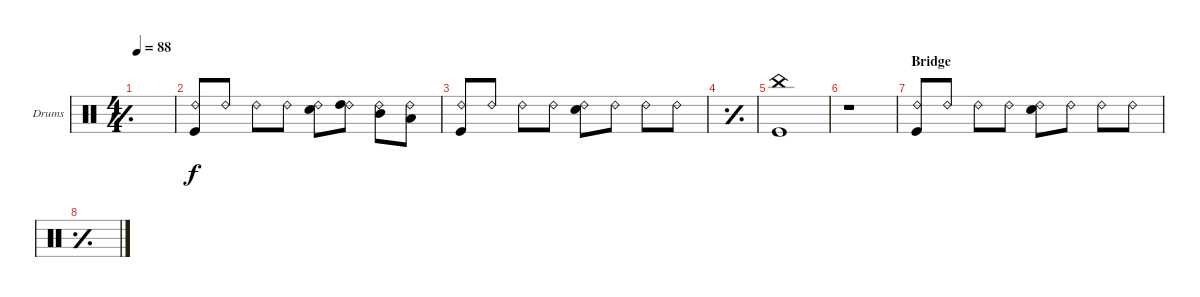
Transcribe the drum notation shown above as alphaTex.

\defaultSystemsLayout 4
\bracketExtendMode groupsimilarinstruments
\firstSystemTrackNameOrientation horizontal
\otherSystemsTrackNameOrientation horizontal
\track ("Drumkit" "Drums") {instrument percussion}
\staff {score}
\articulation defaults
\ts (4 4)
\tempo 88
\clef neutral
\simile simple
\ks c
|
("Ride (bell) 2" "Kick (hit)").8 "Ride (bell) 2".8 "Ride (bell) 2".8 "Ride (bell) 2".8 ("Ride (bell) 2" "Snare (hit) 2").8 ("Ride (bell) 2" "High Tom (hit)").8 ("Ride (bell) 2" "Mid Tom (hit)").8 ("Ride (bell) 2" "Low Tom (hit)").8 |
("Ride (bell) 2" "Kick (hit)").8 "Ride (bell) 2".8 "Ride (bell) 2".8 "Ride (bell) 2".8 ("Ride (bell) 2" "Snare (hit) 2").8 "Ride (bell) 2".8 "Ride (bell) 2".8 "Ride (bell) 2".8 |
\simile simple
|
\simile none
("Kick (hit)" "China (hit)").1 |
r.1 |
\section ("" "Bridge")
("Ride (bell) 2" "Kick (hit)").8 "Ride (bell) 2".8 "Ride (bell) 2".8 "Ride (bell) 2".8 ("Ride (bell) 2" "Snare (hit) 2").8 "Ride (bell) 2".8 "Ride (bell) 2".8 "Ride (bell) 2".8 |
\simile simple
